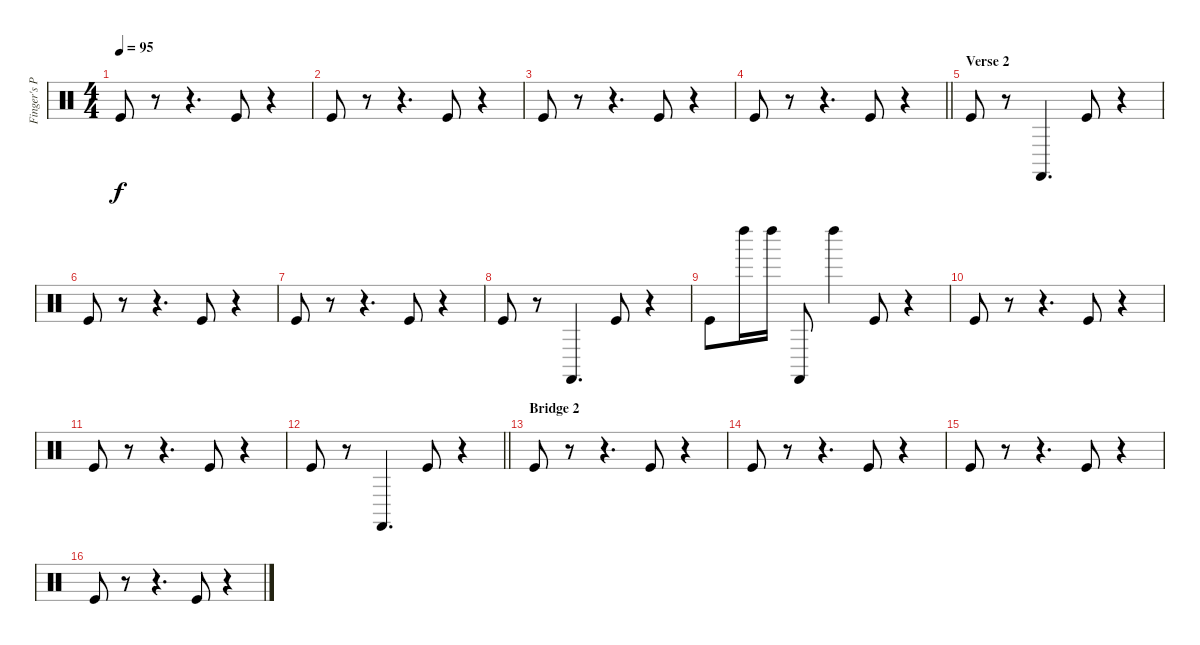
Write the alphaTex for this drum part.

\track ("Finger's Percussive" "Finger's P") {instrument percussion}
\staff {score}
\articulation defaults
\ts (4 4)
\tempo 95
\clef neutral
\ks c "Kick (hit)".8{dy f}
r.8 r.4{d} "Kick (hit)".8 r.4 |
"Kick (hit)".8 r.8 r.4{d} "Kick (hit)".8 r.4 |
"Kick (hit)".8 r.8 r.4{d} "Kick (hit)".8 r.4 |
\barLineRight lightlight "Kick (hit)".8
r.8 r.4{d} "Kick (hit)".8 r.4 |
\section ("" "Verse 2")
"Kick (hit)".8 r.8 "Castanets (hit)".4{d} "Kick (hit)".8 r.4 |
"Kick (hit)".8 r.8 r.4{d} "Kick (hit)".8 r.4 |
"Kick (hit)".8 r.8 r.4{d} "Kick (hit)".8 r.4 |
"Kick (hit)".8 r.8 "Castanets (hit)".4{d} "Kick (hit)".8 r.4 |
"Kick (hit)".8 "Left Maraca (hit)".16 "Left Maraca (hit)".16 "Castanets (hit)".8 "Left Maraca (hit)".4 "Kick (hit)".8 r.4 |
"Kick (hit)".8 r.8 r.4{d} "Kick (hit)".8 r.4 |
"Kick (hit)".8 r.8 r.4{d} "Kick (hit)".8 r.4 |
\barLineRight lightlight "Kick (hit)".8
r.8 "Castanets (hit)".4{d} "Kick (hit)".8 r.4 |
\section ("" "Bridge 2")
"Kick (hit)".8 r.8 r.4{d} "Kick (hit)".8 r.4 |
"Kick (hit)".8 r.8 r.4{d} "Kick (hit)".8 r.4 |
"Kick (hit)".8 r.8 r.4{d} "Kick (hit)".8 r.4 |
"Kick (hit)".8 r.8 r.4{d} "Kick (hit)".8 r.4
